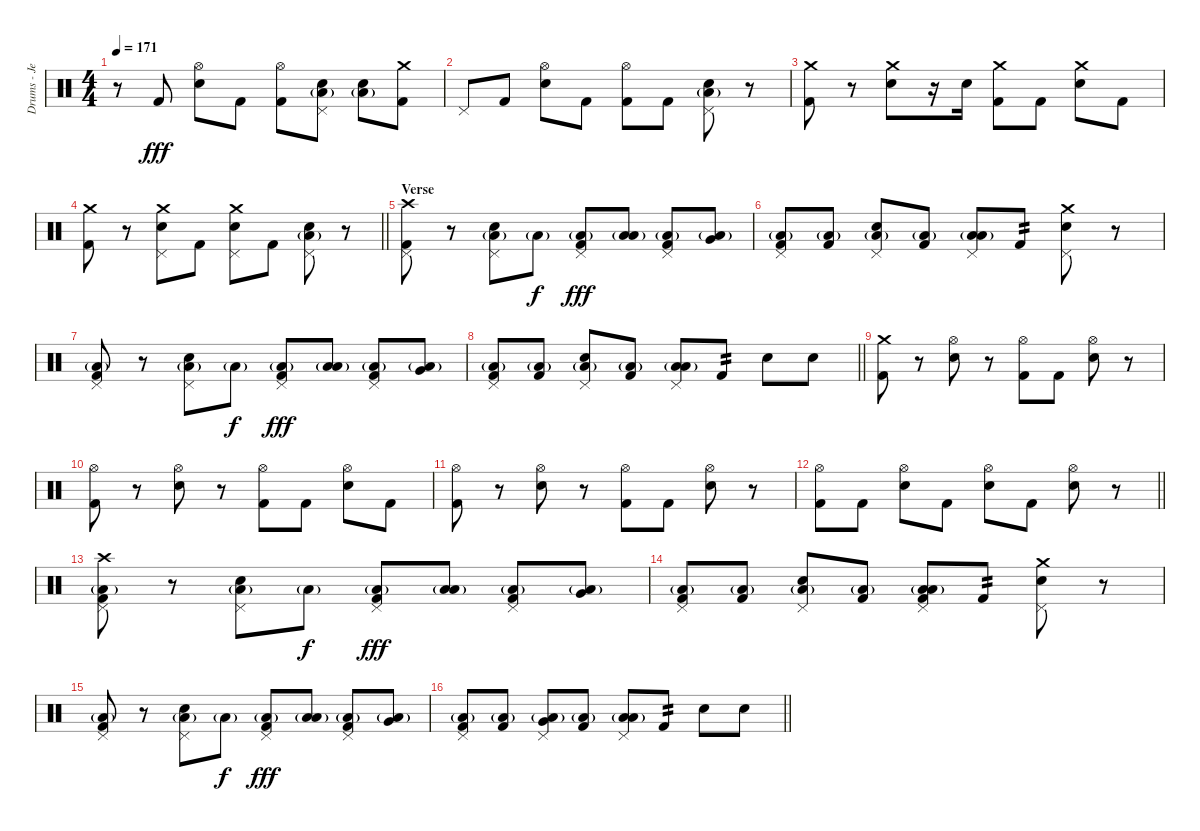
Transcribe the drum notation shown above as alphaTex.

\track ("Drums - Jerinx" "Drums - Je") {instrument percussion}
\staff {score}
\articulation defaults
\ts (4 4)
\tempo 171
\clef neutral
\ks c
r.8{dy fff} "Kick (hit) 2".8 ("Hi-Hat (open)" "Snare (hit) 2").8 "Kick (hit) 2".8 ("Hi-Hat (open)" "Kick (hit) 2").8 ("Pedal Hi-Hat (hit)" "Snare (hit) 2" "Low Floor Tom (hit)"{g}).8 ("Snare (hit) 2" "Low Floor Tom (hit)"{g}).8 ("Kick (hit) 2" "Crash medium (hit)").8 |
"Pedal Hi-Hat (hit)".8 "Kick (hit) 2".8 ("Hi-Hat (open)" "Snare (hit) 2").8 "Kick (hit) 2".8 ("Hi-Hat (open)" "Kick (hit) 2").8 "Kick (hit) 2".8 ("Pedal Hi-Hat (hit)" "Snare (hit) 2" "Low Floor Tom (hit)"{g}).8 r.8 |
("Kick (hit) 2" "Crash medium (hit)").8 r.8 ("Snare (hit) 2" "Crash medium (hit)").8 r.16 "Snare (hit) 2".16 ("Kick (hit) 2" "Crash medium (hit)").8 "Kick (hit) 2".8 ("Snare (hit) 2" "Crash medium (hit)").8 "Kick (hit) 2".8 |
\barLineRight lightlight
("Kick (hit) 2" "Crash medium (hit)").8 r.8 ("Pedal Hi-Hat (hit)" "Snare (hit) 2" "Crash medium (hit)").8 "Kick (hit) 2".8 ("Pedal Hi-Hat (hit)" "Snare (hit) 2" "Crash medium (hit)").8 "Kick (hit) 2".8 ("Pedal Hi-Hat (hit)" "Snare (hit) 2" "Low Floor Tom (hit)"{g}).8 r.8 |
\section ("" "Verse")
("Pedal Hi-Hat (hit)" "Kick (hit) 2" "Crash high (hit)").8 r.8 ("Pedal Hi-Hat (hit)" "Snare (hit) 2" "Low Floor Tom (hit)"{g}).8 "Low Floor Tom (hit)"{g}.8{dy f} ("Pedal Hi-Hat (hit)" "Kick (hit) 2" "Low Floor Tom (hit)"{g}).8{dy fff} ("Low Tom (hit)" "Low Floor Tom (hit)"{g}).8 ("Pedal Hi-Hat (hit)" "Kick (hit) 2" "Low Floor Tom (hit)"{g}).8 ("Very Low Tom (hit)" "Low Floor Tom (hit)"{g}).8 |
("Pedal Hi-Hat (hit)" "Kick (hit) 2" "Low Floor Tom (hit)"{g}).8 ("Kick (hit) 2" "Low Floor Tom (hit)"{g}).8 ("Pedal Hi-Hat (hit)" "Snare (hit) 2" "Low Floor Tom (hit)"{g}).8 ("Kick (hit) 2" "Low Floor Tom (hit)"{g}).8 ("Pedal Hi-Hat (hit)" "Low Tom (hit)" "Low Floor Tom (hit)"{g}).8 "Kick (hit) 2".8{tp 2} ("Pedal Hi-Hat (hit)" "Snare (hit) 2" "Crash medium (hit)").8 r.8 |
("Pedal Hi-Hat (hit)" "Kick (hit) 2" "Low Floor Tom (hit)"{g}).8 r.8 ("Pedal Hi-Hat (hit)" "Snare (hit) 2" "Low Floor Tom (hit)"{g}).8 "Low Floor Tom (hit)"{g}.8{dy f} ("Pedal Hi-Hat (hit)" "Kick (hit) 2" "Low Floor Tom (hit)"{g}).8{dy fff} ("Low Tom (hit)" "Low Floor Tom (hit)"{g}).8 ("Pedal Hi-Hat (hit)" "Kick (hit) 2" "Low Floor Tom (hit)"{g}).8 ("Very Low Tom (hit)" "Low Floor Tom (hit)"{g}).8 |
\barLineRight lightlight
("Pedal Hi-Hat (hit)" "Kick (hit) 2" "Low Floor Tom (hit)"{g}).8 ("Kick (hit) 2" "Low Floor Tom (hit)"{g}).8 ("Pedal Hi-Hat (hit)" "Snare (hit) 2" "Low Floor Tom (hit)"{g}).8 ("Kick (hit) 2" "Low Floor Tom (hit)"{g}).8 ("Pedal Hi-Hat (hit)" "Low Tom (hit)" "Low Floor Tom (hit)"{g}).8 "Kick (hit) 2".8{tp 2} "Snare (hit) 2".8 "Snare (hit) 2".8 |
("Kick (hit) 2" "Crash medium (hit)").8 r.8 ("Hi-Hat (open)" "Snare (hit) 2").8 r.8 ("Hi-Hat (open)" "Kick (hit) 2").8 "Kick (hit) 2".8 ("Hi-Hat (open)" "Snare (hit) 2").8 r.8 |
("Hi-Hat (open)" "Kick (hit) 2").8 r.8 ("Hi-Hat (open)" "Snare (hit) 2").8 r.8 ("Hi-Hat (open)" "Kick (hit) 2").8 "Kick (hit) 2".8 ("Hi-Hat (open)" "Snare (hit) 2").8 "Kick (hit) 2".8 |
("Hi-Hat (open)" "Kick (hit) 2").8 r.8 ("Hi-Hat (open)" "Snare (hit) 2").8 r.8 ("Hi-Hat (open)" "Kick (hit) 2").8 "Kick (hit) 2".8 ("Hi-Hat (open)" "Snare (hit) 2").8 r.8 |
\barLineRight lightlight
("Hi-Hat (open)" "Kick (hit) 2").8 "Kick (hit) 2".8 ("Hi-Hat (open)" "Snare (hit) 2").8 "Kick (hit) 2".8 ("Hi-Hat (open)" "Snare (hit) 2").8 "Kick (hit) 2".8 ("Hi-Hat (open)" "Snare (hit) 2").8 r.8 |
("Pedal Hi-Hat (hit)" "Kick (hit) 2" "Low Floor Tom (hit)"{g} "Crash high (hit)").8 r.8 ("Pedal Hi-Hat (hit)" "Snare (hit) 2" "Low Floor Tom (hit)"{g}).8 "Low Floor Tom (hit)"{g}.8{dy f} ("Pedal Hi-Hat (hit)" "Kick (hit) 2" "Low Floor Tom (hit)"{g}).8{dy fff} ("Low Tom (hit)" "Low Floor Tom (hit)"{g}).8 ("Pedal Hi-Hat (hit)" "Kick (hit) 2" "Low Floor Tom (hit)"{g}).8 ("Very Low Tom (hit)" "Low Floor Tom (hit)"{g}).8 |
("Pedal Hi-Hat (hit)" "Kick (hit) 2" "Low Floor Tom (hit)"{g}).8 ("Kick (hit) 2" "Low Floor Tom (hit)"{g}).8 ("Pedal Hi-Hat (hit)" "Snare (hit) 2" "Low Floor Tom (hit)"{g}).8 ("Kick (hit) 2" "Low Floor Tom (hit)"{g}).8 ("Pedal Hi-Hat (hit)" "Low Tom (hit)" "Kick (hit) 2" "Low Floor Tom (hit)"{g}).8 "Kick (hit) 2".8{tp 2} ("Pedal Hi-Hat (hit)" "Snare (hit) 2" "Crash medium (hit)").8 r.8 |
("Pedal Hi-Hat (hit)" "Kick (hit) 2" "Low Floor Tom (hit)"{g}).8 r.8 ("Pedal Hi-Hat (hit)" "Snare (hit) 2" "Low Floor Tom (hit)"{g}).8 "Low Floor Tom (hit)"{g}.8{dy f} ("Pedal Hi-Hat (hit)" "Kick (hit) 2" "Low Floor Tom (hit)"{g}).8{dy fff} ("Low Tom (hit)" "Low Floor Tom (hit)"{g}).8 ("Pedal Hi-Hat (hit)" "Kick (hit) 2" "Low Floor Tom (hit)"{g}).8 ("Very Low Tom (hit)" "Low Floor Tom (hit)"{g}).8 |
\barLineRight lightlight
("Pedal Hi-Hat (hit)" "Kick (hit) 2" "Low Floor Tom (hit)"{g}).8 ("Kick (hit) 2" "Low Floor Tom (hit)"{g}).8 ("Pedal Hi-Hat (hit)" "Very Low Tom (hit)" "Low Floor Tom (hit)"{g}).8 ("Kick (hit) 2" "Low Floor Tom (hit)"{g}).8 ("Pedal Hi-Hat (hit)" "Low Tom (hit)" "Low Floor Tom (hit)"{g}).8 "Kick (hit) 2".8{tp 2} "Snare (hit) 2".8 "Snare (hit) 2".8
